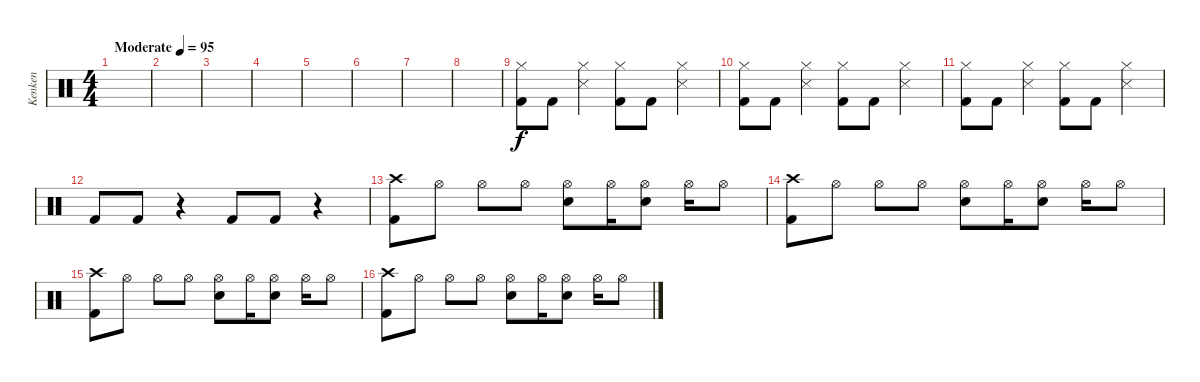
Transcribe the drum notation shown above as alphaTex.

\track ("Kenken" "Kenken") {instrument percussion}
\staff {score}
\articulation defaults
\ts (4 4)
\tempo (95 "Moderate")
\clef neutral
\ks c
|
|
|
|
|
|
|
|
("Hi-Hat (closed)" "Kick (hit) 2").8 "Kick (hit) 2".8 ("Hi-Hat (closed)" "Snare (side stick) 3").4 ("Hi-Hat (closed)" "Kick (hit) 2").8 "Kick (hit) 2".8 ("Hi-Hat (closed)" "Snare (side stick) 3").4 |
("Hi-Hat (closed)" "Kick (hit) 2").8 "Kick (hit) 2".8 ("Hi-Hat (closed)" "Snare (side stick) 3").4 ("Hi-Hat (closed)" "Kick (hit) 2").8 "Kick (hit) 2".8 ("Hi-Hat (closed)" "Snare (side stick) 3").4 |
("Hi-Hat (closed)" "Kick (hit) 2").8 "Kick (hit) 2".8 ("Hi-Hat (closed)" "Snare (side stick) 3").4 ("Hi-Hat (closed)" "Kick (hit) 2").8 "Kick (hit) 2".8 ("Hi-Hat (closed)" "Snare (side stick) 3").4 |
"Kick (hit) 2".8 "Kick (hit) 2".8 r.4 "Kick (hit) 2".8 "Kick (hit) 2".8 r.4 |
("Crash high (hit)" "Kick (hit) 2").8 "Hi-Hat (open)".8 "Hi-Hat (open)".8 "Hi-Hat (open)".8 ("Hi-Hat (open)" "Snare (hit) 2").8 "Hi-Hat (open)".16 ("Hi-Hat (open)" "Snare (hit) 2").8 "Hi-Hat (open)".16 "Hi-Hat (open)".8 |
("Crash high (hit)" "Kick (hit) 2").8 "Hi-Hat (open)".8 "Hi-Hat (open)".8 "Hi-Hat (open)".8 ("Hi-Hat (open)" "Snare (hit) 2").8 "Hi-Hat (open)".16 ("Hi-Hat (open)" "Snare (hit) 2").8 "Hi-Hat (open)".16 "Hi-Hat (open)".8 |
("Crash high (hit)" "Kick (hit) 2").8 "Hi-Hat (open)".8 "Hi-Hat (open)".8 "Hi-Hat (open)".8 ("Hi-Hat (open)" "Snare (hit) 2").8 "Hi-Hat (open)".16 ("Hi-Hat (open)" "Snare (hit) 2").8 "Hi-Hat (open)".16 "Hi-Hat (open)".8 |
("Crash high (hit)" "Kick (hit) 2").8 "Hi-Hat (open)".8 "Hi-Hat (open)".8 "Hi-Hat (open)".8 ("Hi-Hat (open)" "Snare (hit) 2").8 "Hi-Hat (open)".16 ("Hi-Hat (open)" "Snare (hit) 2").8 "Hi-Hat (open)".16 "Hi-Hat (open)".8
